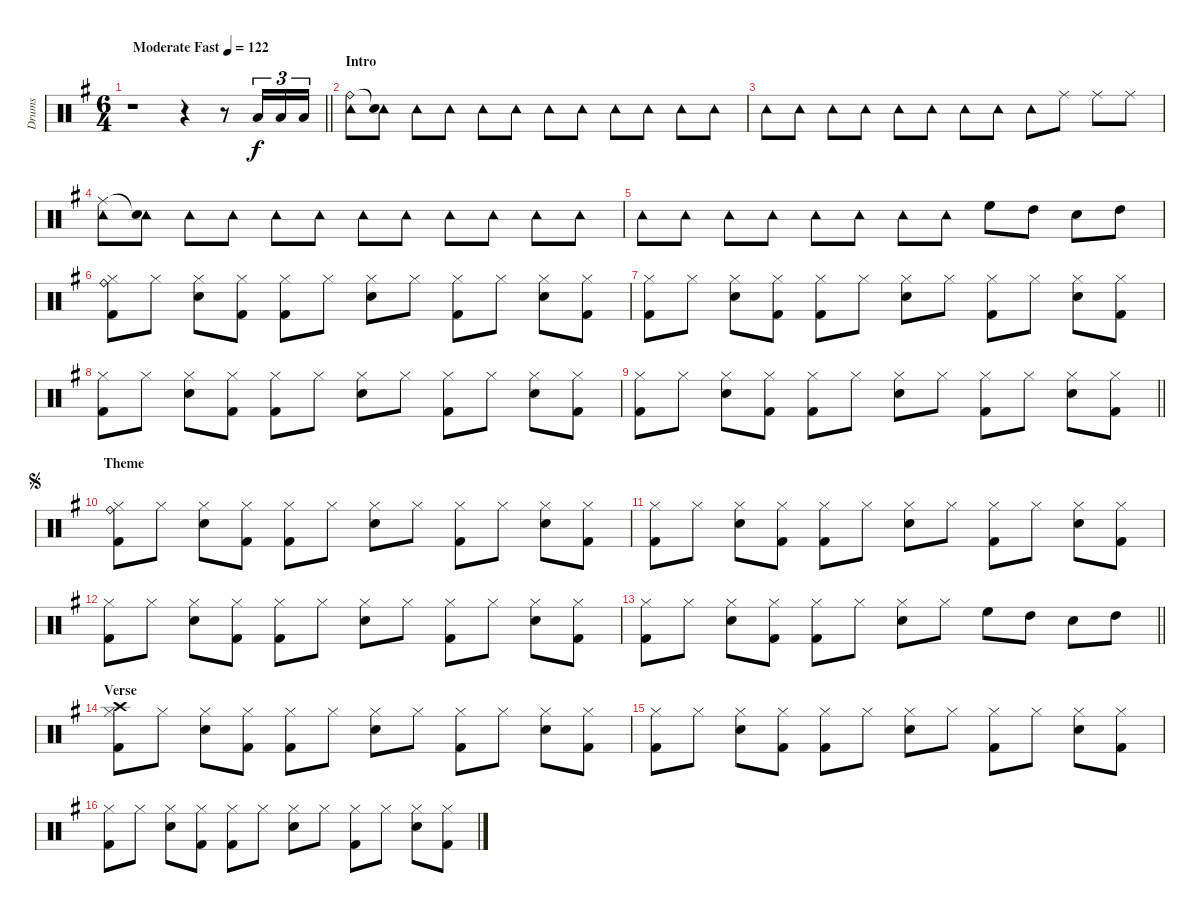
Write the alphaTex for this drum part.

\track ("Drums" "Drums") {instrument percussion}
\staff {score}
\articulation defaults
\ts (6 4)
\tempo (122 "Moderate Fast")
\clef neutral
\barLineRight lightlight
\ks g
r.1{dy f} r.4 r.8 "Low Tom (hit)".16{tu (3 2)} "Low Tom (hit)".16{tu (3 2)} "Low Tom (hit)".16{tu (3 2)} |
\section ("" "Intro")
("Tambourine (hit)" "Ride (bell)").8 ("Tambourine (hit)" "Snare (hit)"{t}).8 "Tambourine (hit)".8 "Tambourine (hit)".8 "Tambourine (hit)".8 "Tambourine (hit)".8 "Tambourine (hit)".8 "Tambourine (hit)".8 "Tambourine (hit)".8 "Tambourine (hit)".8 "Tambourine (hit)".8 "Tambourine (hit)".8 |
"Tambourine (hit)".8 "Tambourine (hit)".8 "Tambourine (hit)".8 "Tambourine (hit)".8 "Tambourine (hit)".8 "Tambourine (hit)".8 "Tambourine (hit)".8 "Tambourine (hit)".8 "Tambourine (hit)".8 "Ride (middle)".8 "Ride (middle)".8 "Ride (middle)".8 |
("Tambourine (hit)" "Ride (middle)").8 ("Tambourine (hit)" "Snare (hit)"{t}).8 "Tambourine (hit)".8 "Tambourine (hit)".8 "Tambourine (hit)".8 "Tambourine (hit)".8 "Tambourine (hit)".8 "Tambourine (hit)".8 "Tambourine (hit)".8 "Tambourine (hit)".8 "Tambourine (hit)".8 "Tambourine (hit)".8 |
"Tambourine (hit)".8 "Tambourine (hit)".8 "Tambourine (hit)".8 "Tambourine (hit)".8 "Tambourine (hit)".8 "Tambourine (hit)".8 "Tambourine (hit)".8 "Tambourine (hit)".8 "High Floor Tom (hit)".8 "High Tom (hit)".8 "Snare (hit) 2".8 "High Tom (hit)".8 |
("Hi-Hat (closed)" "Ride (bell)" "Kick (hit) 2").8 "Hi-Hat (closed)".8 ("Hi-Hat (closed)" "Snare (hit) 2").8 ("Hi-Hat (closed)" "Kick (hit) 2").8 ("Hi-Hat (closed)" "Kick (hit) 2").8 "Hi-Hat (closed)".8 ("Hi-Hat (closed)" "Snare (hit) 2").8 "Hi-Hat (closed)".8 ("Hi-Hat (closed)" "Kick (hit) 2").8 "Hi-Hat (closed)".8 ("Hi-Hat (closed)" "Snare (hit) 2").8 ("Hi-Hat (closed)" "Kick (hit) 2").8 |
("Hi-Hat (closed)" "Kick (hit) 2").8 "Hi-Hat (closed)".8 ("Hi-Hat (closed)" "Snare (hit) 2").8 ("Hi-Hat (closed)" "Kick (hit) 2").8 ("Hi-Hat (closed)" "Kick (hit) 2").8 "Hi-Hat (closed)".8 ("Hi-Hat (closed)" "Snare (hit) 2").8 "Hi-Hat (closed)".8 ("Hi-Hat (closed)" "Kick (hit) 2").8 "Hi-Hat (closed)".8 ("Hi-Hat (closed)" "Snare (hit) 2").8 ("Hi-Hat (closed)" "Kick (hit) 2").8 |
("Hi-Hat (closed)" "Kick (hit) 2").8 "Hi-Hat (closed)".8 ("Hi-Hat (closed)" "Snare (hit) 2").8 ("Hi-Hat (closed)" "Kick (hit) 2").8 ("Hi-Hat (closed)" "Kick (hit) 2").8 "Hi-Hat (closed)".8 ("Hi-Hat (closed)" "Snare (hit) 2").8 "Hi-Hat (closed)".8 ("Hi-Hat (closed)" "Kick (hit) 2").8 "Hi-Hat (closed)".8 ("Hi-Hat (closed)" "Snare (hit) 2").8 ("Hi-Hat (closed)" "Kick (hit) 2").8 |
\barLineRight lightlight
("Hi-Hat (closed)" "Kick (hit) 2").8 "Hi-Hat (closed)".8 ("Hi-Hat (closed)" "Snare (hit) 2").8 ("Hi-Hat (closed)" "Kick (hit) 2").8 ("Hi-Hat (closed)" "Kick (hit) 2").8 "Hi-Hat (closed)".8 ("Hi-Hat (closed)" "Snare (hit) 2").8 "Hi-Hat (closed)".8 ("Hi-Hat (closed)" "Kick (hit) 2").8 "Hi-Hat (closed)".8 ("Hi-Hat (closed)" "Snare (hit) 2").8 ("Hi-Hat (closed)" "Kick (hit) 2").8 |
\section ("" "Theme")
\jump segno
("Hi-Hat (closed)" "Ride (bell)" "Kick (hit) 2").8 "Hi-Hat (closed)".8 ("Hi-Hat (closed)" "Snare (hit) 2").8 ("Hi-Hat (closed)" "Kick (hit) 2").8 ("Hi-Hat (closed)" "Kick (hit) 2").8 "Hi-Hat (closed)".8 ("Hi-Hat (closed)" "Snare (hit) 2").8 "Hi-Hat (closed)".8 ("Hi-Hat (closed)" "Kick (hit) 2").8 "Hi-Hat (closed)".8 ("Hi-Hat (closed)" "Snare (hit) 2").8 ("Hi-Hat (closed)" "Kick (hit) 2").8 |
("Hi-Hat (closed)" "Kick (hit) 2").8 "Hi-Hat (closed)".8 ("Hi-Hat (closed)" "Snare (hit) 2").8 ("Hi-Hat (closed)" "Kick (hit) 2").8 ("Hi-Hat (closed)" "Kick (hit) 2").8 "Hi-Hat (closed)".8 ("Hi-Hat (closed)" "Snare (hit) 2").8 "Hi-Hat (closed)".8 ("Hi-Hat (closed)" "Kick (hit) 2").8 "Hi-Hat (closed)".8 ("Hi-Hat (closed)" "Snare (hit) 2").8 ("Hi-Hat (closed)" "Kick (hit) 2").8 |
("Hi-Hat (closed)" "Kick (hit) 2").8 "Hi-Hat (closed)".8 ("Hi-Hat (closed)" "Snare (hit) 2").8 ("Hi-Hat (closed)" "Kick (hit) 2").8 ("Hi-Hat (closed)" "Kick (hit) 2").8 "Hi-Hat (closed)".8 ("Hi-Hat (closed)" "Snare (hit) 2").8 "Hi-Hat (closed)".8 ("Hi-Hat (closed)" "Kick (hit) 2").8 "Hi-Hat (closed)".8 ("Hi-Hat (closed)" "Snare (hit) 2").8 ("Hi-Hat (closed)" "Kick (hit) 2").8 |
\barLineRight lightlight
("Hi-Hat (closed)" "Kick (hit) 2").8 "Hi-Hat (closed)".8 ("Hi-Hat (closed)" "Snare (hit) 2").8 ("Hi-Hat (closed)" "Kick (hit) 2").8 ("Hi-Hat (closed)" "Kick (hit) 2").8 "Hi-Hat (closed)".8 ("Hi-Hat (closed)" "Snare (hit) 2").8 "Hi-Hat (closed)".8 "High Floor Tom (hit)".8 "High Tom (hit)".8 "Snare (hit) 2".8 "High Tom (hit)".8 |
\section ("" "Verse")
("Hi-Hat (closed)" "Crash high (hit)" "Kick (hit) 2").8 "Hi-Hat (closed)".8 ("Hi-Hat (closed)" "Snare (hit) 2").8 ("Hi-Hat (closed)" "Kick (hit) 2").8 ("Hi-Hat (closed)" "Kick (hit) 2").8 "Hi-Hat (closed)".8 ("Hi-Hat (closed)" "Snare (hit) 2").8 "Hi-Hat (closed)".8 ("Hi-Hat (closed)" "Kick (hit) 2").8 "Hi-Hat (closed)".8 ("Hi-Hat (closed)" "Snare (hit) 2").8 ("Hi-Hat (closed)" "Kick (hit) 2").8 |
("Hi-Hat (closed)" "Kick (hit) 2").8 "Hi-Hat (closed)".8 ("Hi-Hat (closed)" "Snare (hit) 2").8 ("Hi-Hat (closed)" "Kick (hit) 2").8 ("Hi-Hat (closed)" "Kick (hit) 2").8 "Hi-Hat (closed)".8 ("Hi-Hat (closed)" "Snare (hit) 2").8 "Hi-Hat (closed)".8 ("Hi-Hat (closed)" "Kick (hit) 2").8 "Hi-Hat (closed)".8 ("Hi-Hat (closed)" "Snare (hit) 2").8 ("Hi-Hat (closed)" "Kick (hit) 2").8 |
("Hi-Hat (closed)" "Kick (hit) 2").8 "Hi-Hat (closed)".8 ("Hi-Hat (closed)" "Snare (hit) 2").8 ("Hi-Hat (closed)" "Kick (hit) 2").8 ("Hi-Hat (closed)" "Kick (hit) 2").8 "Hi-Hat (closed)".8 ("Hi-Hat (closed)" "Snare (hit) 2").8 "Hi-Hat (closed)".8 ("Hi-Hat (closed)" "Kick (hit) 2").8 "Hi-Hat (closed)".8 ("Hi-Hat (closed)" "Snare (hit) 2").8 ("Hi-Hat (closed)" "Kick (hit) 2").8
